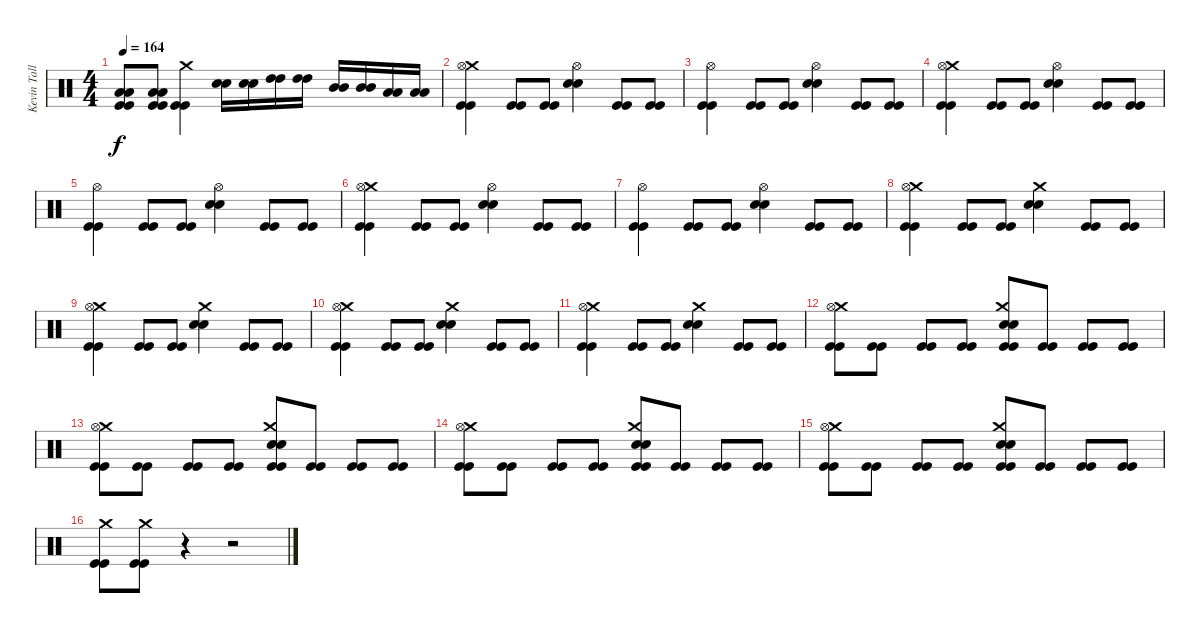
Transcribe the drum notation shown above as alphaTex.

\track ("Kevin Talley" "Kevin Tall") {instrument percussion}
\staff {score}
\articulation defaults
\ts (4 4)
\tempo 164
\clef neutral
\ks c
("Low Floor Tom (hit)" "Low Floor Tom (hit)" "Kick (hit)" "Kick (hit)").8{dy f} ("Low Floor Tom (hit)" "Low Floor Tom (hit)" "Kick (hit)" "Kick (hit)").8 ("Crash medium (hit)" "Kick (hit)" "Kick (hit)").4 ("Snare (hit) 2" "Snare (hit) 2").16 ("Snare (hit) 2" "Snare (hit) 2").16 ("High Tom (hit)" "High Tom (hit)").16 ("High Tom (hit)" "High Tom (hit)").16 ("Mid Tom (hit)" "Mid Tom (hit)").16 ("Mid Tom (hit)" "Mid Tom (hit)").16 ("Low Tom (hit)" "Low Tom (hit)").16 ("Low Tom (hit)" "Low Tom (hit)").16 |
("Crash medium (hit)" "Hi-Hat (open)" "Kick (hit)" "Kick (hit)").4 ("Kick (hit)" "Kick (hit)").8 ("Kick (hit)" "Kick (hit)").8 ("Snare (hit) 2" "Snare (hit) 2" "Hi-Hat (open)").4 ("Kick (hit)" "Kick (hit)").8 ("Kick (hit)" "Kick (hit)").8 |
("Hi-Hat (open)" "Kick (hit)" "Kick (hit)").4 ("Kick (hit)" "Kick (hit)").8 ("Kick (hit)" "Kick (hit)").8 ("Snare (hit) 2" "Snare (hit) 2" "Hi-Hat (open)").4 ("Kick (hit)" "Kick (hit)").8 ("Kick (hit)" "Kick (hit)").8 |
("Crash medium (hit)" "Hi-Hat (open)" "Kick (hit)" "Kick (hit)").4 ("Kick (hit)" "Kick (hit)").8 ("Kick (hit)" "Kick (hit)").8 ("Snare (hit) 2" "Snare (hit) 2" "Hi-Hat (open)").4 ("Kick (hit)" "Kick (hit)").8 ("Kick (hit)" "Kick (hit)").8 |
("Hi-Hat (open)" "Kick (hit)" "Kick (hit)").4 ("Kick (hit)" "Kick (hit)").8 ("Kick (hit)" "Kick (hit)").8 ("Snare (hit) 2" "Snare (hit) 2" "Hi-Hat (open)").4 ("Kick (hit)" "Kick (hit)").8 ("Kick (hit)" "Kick (hit)").8 |
("Crash medium (hit)" "Hi-Hat (open)" "Kick (hit)" "Kick (hit)").4 ("Kick (hit)" "Kick (hit)").8 ("Kick (hit)" "Kick (hit)").8 ("Snare (hit) 2" "Snare (hit) 2" "Hi-Hat (open)").4 ("Kick (hit)" "Kick (hit)").8 ("Kick (hit)" "Kick (hit)").8 |
("Hi-Hat (open)" "Kick (hit)" "Kick (hit)").4 ("Kick (hit)" "Kick (hit)").8 ("Kick (hit)" "Kick (hit)").8 ("Snare (hit) 2" "Snare (hit) 2" "Hi-Hat (open)").4 ("Kick (hit)" "Kick (hit)").8 ("Kick (hit)" "Kick (hit)").8 |
("Crash medium (hit)" "Hi-Hat (open)" "Kick (hit)" "Kick (hit)").4 ("Kick (hit)" "Kick (hit)").8 ("Kick (hit)" "Kick (hit)").8 ("Crash medium (hit)" "Snare (hit) 2" "Snare (hit) 2").4 ("Kick (hit)" "Kick (hit)").8 ("Kick (hit)" "Kick (hit)").8 |
("Crash medium (hit)" "Hi-Hat (open)" "Kick (hit)" "Kick (hit)").4 ("Kick (hit)" "Kick (hit)").8 ("Kick (hit)" "Kick (hit)").8 ("Crash medium (hit)" "Snare (hit) 2" "Snare (hit) 2").4 ("Kick (hit)" "Kick (hit)").8 ("Kick (hit)" "Kick (hit)").8 |
("Crash medium (hit)" "Hi-Hat (open)" "Kick (hit)" "Kick (hit)").4 ("Kick (hit)" "Kick (hit)").8 ("Kick (hit)" "Kick (hit)").8 ("Crash medium (hit)" "Snare (hit) 2" "Snare (hit) 2").4 ("Kick (hit)" "Kick (hit)").8 ("Kick (hit)" "Kick (hit)").8 |
("Crash medium (hit)" "Hi-Hat (open)" "Kick (hit)" "Kick (hit)").4 ("Kick (hit)" "Kick (hit)").8 ("Kick (hit)" "Kick (hit)").8 ("Crash medium (hit)" "Snare (hit) 2" "Snare (hit) 2").4 ("Kick (hit)" "Kick (hit)").8 ("Kick (hit)" "Kick (hit)").8 |
("Crash medium (hit)" "Hi-Hat (open)" "Kick (hit)" "Kick (hit)").8 ("Kick (hit)" "Kick (hit)").8 ("Kick (hit)" "Kick (hit)").8 ("Kick (hit)" "Kick (hit)").8 ("Crash medium (hit)" "Snare (hit) 2" "Snare (hit) 2" "Kick (hit)" "Kick (hit)").8 ("Kick (hit)" "Kick (hit)").8 ("Kick (hit)" "Kick (hit)").8 ("Kick (hit)" "Kick (hit)").8 |
("Crash medium (hit)" "Hi-Hat (open)" "Kick (hit)" "Kick (hit)").8 ("Kick (hit)" "Kick (hit)").8 ("Kick (hit)" "Kick (hit)").8 ("Kick (hit)" "Kick (hit)").8 ("Crash medium (hit)" "Snare (hit) 2" "Snare (hit) 2" "Kick (hit)" "Kick (hit)").8 ("Kick (hit)" "Kick (hit)").8 ("Kick (hit)" "Kick (hit)").8 ("Kick (hit)" "Kick (hit)").8 |
("Crash medium (hit)" "Hi-Hat (open)" "Kick (hit)" "Kick (hit)").8 ("Kick (hit)" "Kick (hit)").8 ("Kick (hit)" "Kick (hit)").8 ("Kick (hit)" "Kick (hit)").8 ("Crash medium (hit)" "Snare (hit) 2" "Snare (hit) 2" "Kick (hit)" "Kick (hit)").8 ("Kick (hit)" "Kick (hit)").8 ("Kick (hit)" "Kick (hit)").8 ("Kick (hit)" "Kick (hit)").8 |
("Crash medium (hit)" "Hi-Hat (open)" "Kick (hit)" "Kick (hit)").8 ("Kick (hit)" "Kick (hit)").8 ("Kick (hit)" "Kick (hit)").8 ("Kick (hit)" "Kick (hit)").8 ("Crash medium (hit)" "Snare (hit) 2" "Snare (hit) 2" "Kick (hit)" "Kick (hit)").8 ("Kick (hit)" "Kick (hit)").8 ("Kick (hit)" "Kick (hit)").8 ("Kick (hit)" "Kick (hit)").8 |
("Crash medium (hit)" "Kick (hit)" "Kick (hit)").8 ("Crash medium (hit)" "Kick (hit)" "Kick (hit)").8 r.4 r.2
